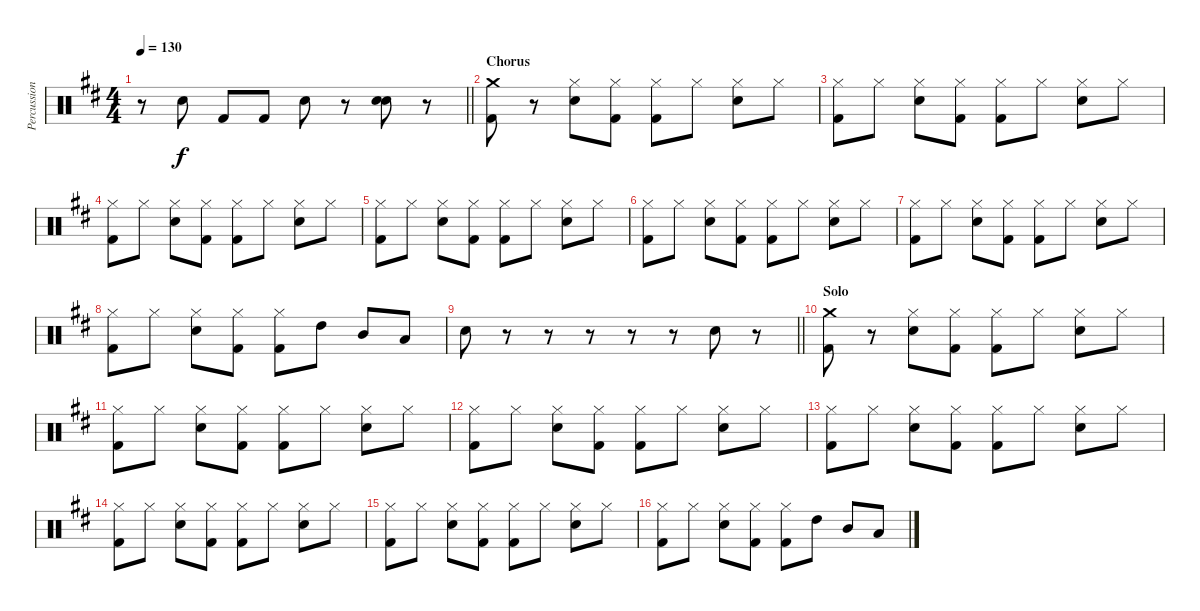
\track ("Percussion" "Percussion") {instrument percussion}
\staff {score}
\articulation defaults
\ts (4 4)
\tempo 130
\clef neutral
\barLineRight lightlight
\ks d
r.8{dy f} "Electric Snare (hit)".8 "Kick (hit) 2".8 "Kick (hit) 2".8 "Electric Snare (hit)".8 r.8 ("Electric Snare (hit)" "Electric Snare (hit)").8 r.8 |
\section ("" "Chorus")
("Crash medium (hit)" "Kick (hit) 2").8 r.8 ("Hi-Hat (closed)" "Electric Snare (hit)").8 ("Hi-Hat (closed)" "Kick (hit) 2").8 ("Hi-Hat (closed)" "Kick (hit) 2").8 "Hi-Hat (closed)".8 ("Hi-Hat (closed)" "Electric Snare (hit)").8 "Hi-Hat (closed)".8 |
("Hi-Hat (closed)" "Kick (hit) 2").8 "Hi-Hat (closed)".8 ("Hi-Hat (closed)" "Electric Snare (hit)").8 ("Hi-Hat (closed)" "Kick (hit) 2").8 ("Hi-Hat (closed)" "Kick (hit) 2").8 "Hi-Hat (closed)".8 ("Hi-Hat (closed)" "Electric Snare (hit)").8 "Hi-Hat (closed)".8 |
("Hi-Hat (closed)" "Kick (hit) 2").8 "Hi-Hat (closed)".8 ("Hi-Hat (closed)" "Electric Snare (hit)").8 ("Hi-Hat (closed)" "Kick (hit) 2").8 ("Hi-Hat (closed)" "Kick (hit) 2").8 "Hi-Hat (closed)".8 ("Hi-Hat (closed)" "Electric Snare (hit)").8 "Hi-Hat (closed)".8 |
("Hi-Hat (closed)" "Kick (hit) 2").8 "Hi-Hat (closed)".8 ("Hi-Hat (closed)" "Electric Snare (hit)").8 ("Hi-Hat (closed)" "Kick (hit) 2").8 ("Hi-Hat (closed)" "Kick (hit) 2").8 "Hi-Hat (closed)".8 ("Hi-Hat (closed)" "Electric Snare (hit)").8 "Hi-Hat (closed)".8 |
("Hi-Hat (closed)" "Kick (hit) 2").8 "Hi-Hat (closed)".8 ("Hi-Hat (closed)" "Electric Snare (hit)").8 ("Hi-Hat (closed)" "Kick (hit) 2").8 ("Hi-Hat (closed)" "Kick (hit) 2").8 "Hi-Hat (closed)".8 ("Hi-Hat (closed)" "Electric Snare (hit)").8 "Hi-Hat (closed)".8 |
("Hi-Hat (closed)" "Kick (hit) 2").8 "Hi-Hat (closed)".8 ("Hi-Hat (closed)" "Electric Snare (hit)").8 ("Hi-Hat (closed)" "Kick (hit) 2").8 ("Hi-Hat (closed)" "Kick (hit) 2").8 "Hi-Hat (closed)".8 ("Hi-Hat (closed)" "Electric Snare (hit)").8 "Hi-Hat (closed)".8 |
("Hi-Hat (closed)" "Kick (hit) 2").8 "Hi-Hat (closed)".8 ("Hi-Hat (closed)" "Electric Snare (hit)").8 ("Hi-Hat (closed)" "Kick (hit) 2").8 ("Hi-Hat (closed)" "Kick (hit) 2").8 "High Tom (hit)".8 "Mid Tom (hit)".8 "Low Tom (hit)".8 |
\barLineRight lightlight "Electric Snare (hit)".8
r.8 r.8 r.8 r.8 r.8 "Electric Snare (hit)".8 r.8 |
\section ("" "Solo")
("Crash medium (hit)" "Kick (hit) 2").8 r.8 ("Hi-Hat (closed)" "Electric Snare (hit)").8 ("Hi-Hat (closed)" "Kick (hit) 2").8 ("Hi-Hat (closed)" "Kick (hit) 2").8 "Hi-Hat (closed)".8 ("Hi-Hat (closed)" "Electric Snare (hit)").8 "Hi-Hat (closed)".8 |
("Hi-Hat (closed)" "Kick (hit) 2").8 "Hi-Hat (closed)".8 ("Hi-Hat (closed)" "Electric Snare (hit)").8 ("Hi-Hat (closed)" "Kick (hit) 2").8 ("Hi-Hat (closed)" "Kick (hit) 2").8 "Hi-Hat (closed)".8 ("Hi-Hat (closed)" "Electric Snare (hit)").8 "Hi-Hat (closed)".8 |
("Hi-Hat (closed)" "Kick (hit) 2").8 "Hi-Hat (closed)".8 ("Hi-Hat (closed)" "Electric Snare (hit)").8 ("Hi-Hat (closed)" "Kick (hit) 2").8 ("Hi-Hat (closed)" "Kick (hit) 2").8 "Hi-Hat (closed)".8 ("Hi-Hat (closed)" "Electric Snare (hit)").8 "Hi-Hat (closed)".8 |
("Hi-Hat (closed)" "Kick (hit) 2").8 "Hi-Hat (closed)".8 ("Hi-Hat (closed)" "Electric Snare (hit)").8 ("Hi-Hat (closed)" "Kick (hit) 2").8 ("Hi-Hat (closed)" "Kick (hit) 2").8 "Hi-Hat (closed)".8 ("Hi-Hat (closed)" "Electric Snare (hit)").8 "Hi-Hat (closed)".8 |
("Hi-Hat (closed)" "Kick (hit) 2").8 "Hi-Hat (closed)".8 ("Hi-Hat (closed)" "Electric Snare (hit)").8 ("Hi-Hat (closed)" "Kick (hit) 2").8 ("Hi-Hat (closed)" "Kick (hit) 2").8 "Hi-Hat (closed)".8 ("Hi-Hat (closed)" "Electric Snare (hit)").8 "Hi-Hat (closed)".8 |
("Hi-Hat (closed)" "Kick (hit) 2").8 "Hi-Hat (closed)".8 ("Hi-Hat (closed)" "Electric Snare (hit)").8 ("Hi-Hat (closed)" "Kick (hit) 2").8 ("Hi-Hat (closed)" "Kick (hit) 2").8 "Hi-Hat (closed)".8 ("Hi-Hat (closed)" "Electric Snare (hit)").8 "Hi-Hat (closed)".8 |
("Hi-Hat (closed)" "Kick (hit) 2").8 "Hi-Hat (closed)".8 ("Hi-Hat (closed)" "Electric Snare (hit)").8 ("Hi-Hat (closed)" "Kick (hit) 2").8 ("Hi-Hat (closed)" "Kick (hit) 2").8 "High Tom (hit)".8 "Mid Tom (hit)".8 "Low Tom (hit)".8
